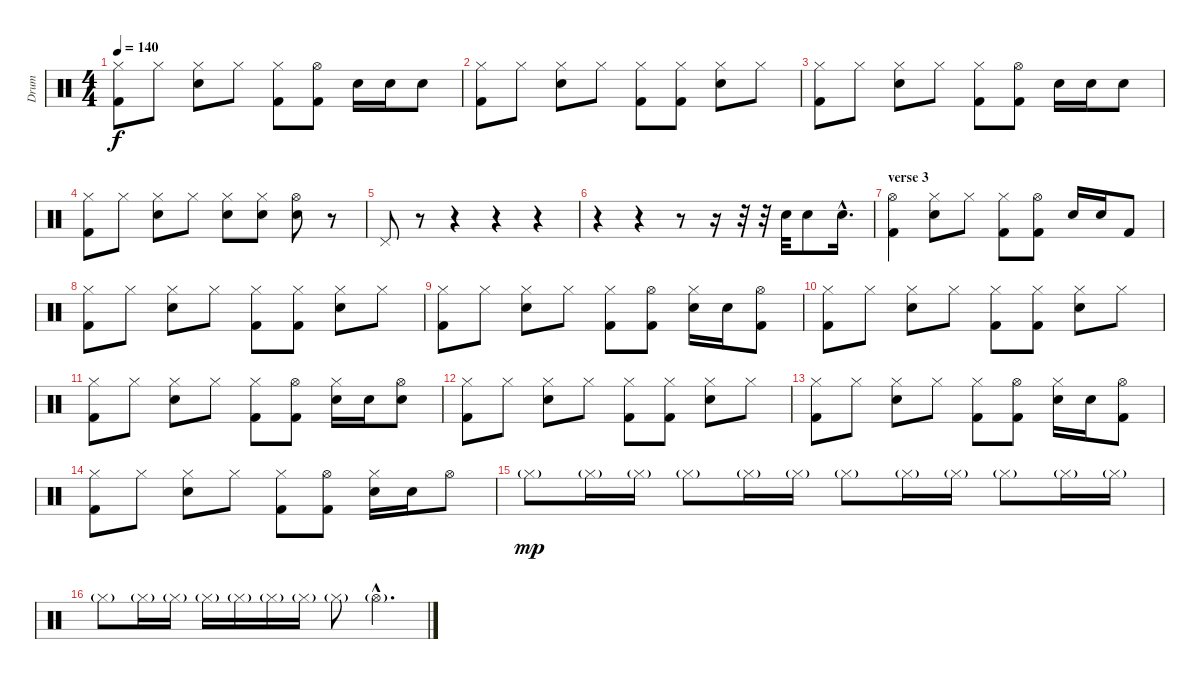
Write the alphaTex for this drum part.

\track ("Drum" "Drum") {instrument percussion}
\staff {score}
\articulation defaults
\ts (4 4)
\tempo 140
\clef neutral
\ks c
("Hi-Hat (closed)" "Kick (hit) 2").8{dy f} "Hi-Hat (closed)".8 ("Hi-Hat (closed)" "Electric Snare (hit)").8 "Hi-Hat (closed)".8 ("Hi-Hat (closed)" "Kick (hit) 2").8 ("Hi-Hat (open)" "Kick (hit) 2").8 "Electric Snare (hit)".16 "Electric Snare (hit)".16 "Electric Snare (hit)".8 |
("Hi-Hat (closed)" "Kick (hit) 2").8 "Hi-Hat (closed)".8 ("Hi-Hat (closed)" "Electric Snare (hit)").8 "Hi-Hat (closed)".8 ("Hi-Hat (closed)" "Kick (hit) 2").8 ("Hi-Hat (closed)" "Kick (hit) 2").8 ("Hi-Hat (closed)" "Electric Snare (hit)").8 "Hi-Hat (closed)".8 |
("Hi-Hat (closed)" "Kick (hit) 2").8 "Hi-Hat (closed)".8 ("Hi-Hat (closed)" "Electric Snare (hit)").8 "Hi-Hat (closed)".8 ("Hi-Hat (closed)" "Kick (hit) 2").8 ("Hi-Hat (open)" "Kick (hit) 2").8 "Electric Snare (hit)".16 "Electric Snare (hit)".16 "Electric Snare (hit)".8 |
("Hi-Hat (closed)" "Kick (hit) 2").8 "Hi-Hat (closed)".8 ("Hi-Hat (closed)" "Electric Snare (hit)").8 "Hi-Hat (closed)".8 ("Hi-Hat (closed)" "Electric Snare (hit)").8 ("Hi-Hat (closed)" "Electric Snare (hit)").8 ("Hi-Hat (open)" "Electric Snare (hit)").8 r.8 |
"Pedal Hi-Hat (hit)".8 r.8 r.4 r.4 r.4 |
r.4 r.4 r.8 r.16 r.32 r.32 "Electric Snare (hit)".32 "Electric Snare (hit)".8 "Electric Snare (hit)"{hac}.16{d} |
\section ("" "verse 3")
("Hi-Hat (open)" "Kick (hit) 2").4 ("Hi-Hat (closed)" "Electric Snare (hit)").8 "Hi-Hat (closed)".8 ("Hi-Hat (closed)" "Kick (hit) 2").8 ("Hi-Hat (open)" "Kick (hit) 2").8 "Electric Snare (hit)".16 "Electric Snare (hit)".16 "Kick (hit) 2".8 |
("Hi-Hat (closed)" "Kick (hit) 2").8 "Hi-Hat (closed)".8 ("Hi-Hat (closed)" "Electric Snare (hit)").8 "Hi-Hat (closed)".8 ("Hi-Hat (closed)" "Kick (hit) 2").8 ("Hi-Hat (closed)" "Kick (hit) 2").8 ("Hi-Hat (closed)" "Electric Snare (hit)").8 "Hi-Hat (closed)".8 |
("Hi-Hat (closed)" "Kick (hit) 2").8 "Hi-Hat (closed)".8 ("Hi-Hat (closed)" "Electric Snare (hit)").8 "Hi-Hat (closed)".8 ("Hi-Hat (closed)" "Kick (hit) 2").8 ("Hi-Hat (open)" "Kick (hit) 2").8 ("Hi-Hat (closed)" "Electric Snare (hit)").16 "Electric Snare (hit)".16 ("Hi-Hat (open)" "Kick (hit) 2").8 |
("Hi-Hat (closed)" "Kick (hit) 2").8 "Hi-Hat (closed)".8 ("Hi-Hat (closed)" "Electric Snare (hit)").8 "Hi-Hat (closed)".8 ("Hi-Hat (closed)" "Kick (hit) 2").8 ("Hi-Hat (closed)" "Kick (hit) 2").8 ("Hi-Hat (closed)" "Electric Snare (hit)").8 "Hi-Hat (closed)".8 |
("Hi-Hat (closed)" "Kick (hit) 2").8 "Hi-Hat (closed)".8 ("Hi-Hat (closed)" "Electric Snare (hit)").8 "Hi-Hat (closed)".8 ("Hi-Hat (closed)" "Kick (hit) 2").8 ("Hi-Hat (open)" "Kick (hit) 2").8 ("Hi-Hat (closed)" "Electric Snare (hit)").16 "Electric Snare (hit)".16 ("Hi-Hat (open)" "Electric Snare (hit)").8 |
("Hi-Hat (closed)" "Kick (hit) 2").8 "Hi-Hat (closed)".8 ("Hi-Hat (closed)" "Electric Snare (hit)").8 "Hi-Hat (closed)".8 ("Hi-Hat (closed)" "Kick (hit) 2").8 ("Hi-Hat (closed)" "Kick (hit) 2").8 ("Hi-Hat (closed)" "Electric Snare (hit)").8 "Hi-Hat (closed)".8 |
("Hi-Hat (closed)" "Kick (hit) 2").8 "Hi-Hat (closed)".8 ("Hi-Hat (closed)" "Electric Snare (hit)").8 "Hi-Hat (closed)".8 ("Hi-Hat (closed)" "Kick (hit) 2").8 ("Hi-Hat (open)" "Kick (hit) 2").8 ("Hi-Hat (closed)" "Electric Snare (hit)").16 "Electric Snare (hit)".16 ("Hi-Hat (open)" "Kick (hit) 2").8 |
("Hi-Hat (closed)" "Kick (hit) 2").8 "Hi-Hat (closed)".8 ("Hi-Hat (closed)" "Electric Snare (hit)").8 "Hi-Hat (closed)".8 ("Hi-Hat (closed)" "Kick (hit) 2").8 ("Hi-Hat (open)" "Kick (hit) 2").8 ("Hi-Hat (closed)" "Electric Snare (hit)").16 "Electric Snare (hit)".16 "Hi-Hat (open)".8 |
"Hi-Hat (closed)"{g}.8{dy mp} "Hi-Hat (closed)"{g}.16 "Hi-Hat (closed)"{g}.16 "Hi-Hat (closed)"{g}.8 "Hi-Hat (closed)"{g}.16 "Hi-Hat (closed)"{g}.16 "Hi-Hat (closed)"{g}.8 "Hi-Hat (closed)"{g}.16 "Hi-Hat (closed)"{g}.16 "Hi-Hat (closed)"{g}.8 "Hi-Hat (closed)"{g}.16 "Hi-Hat (closed)"{g}.16 |
"Hi-Hat (closed)"{g}.8 "Hi-Hat (closed)"{g}.16 "Hi-Hat (closed)"{g}.16 "Hi-Hat (closed)"{g}.16 "Hi-Hat (closed)"{g}.16 "Hi-Hat (closed)"{g}.16 "Hi-Hat (closed)"{g}.16 "Hi-Hat (closed)"{g}.8 "Hi-Hat (open)"{g hac}.4{d}
